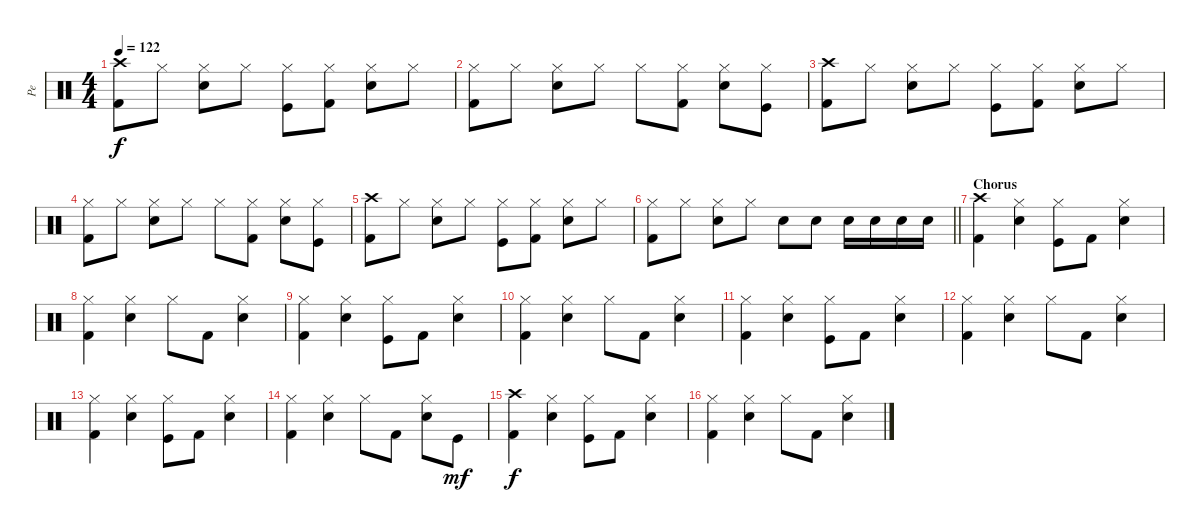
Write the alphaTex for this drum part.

\track ("Pe" "Pe") {instrument percussion}
\staff {score}
\articulation defaults
\ts (4 4)
\tempo 122
\clef neutral
\ks c
("Kick (hit) 2" "Crash high (hit)").8{dy f} "Hi-Hat (closed)".8 ("Electric Snare (hit)" "Hi-Hat (closed)").8 "Hi-Hat (closed)".8 ("Kick (hit)" "Hi-Hat (closed)").8 ("Kick (hit) 2" "Hi-Hat (closed)").8 ("Electric Snare (hit)" "Hi-Hat (closed)").8 "Hi-Hat (closed)".8 |
("Kick (hit) 2" "Hi-Hat (closed)").8 "Hi-Hat (closed)".8 ("Electric Snare (hit)" "Hi-Hat (closed)").8 "Hi-Hat (closed)".8 "Hi-Hat (closed)".8 ("Kick (hit) 2" "Hi-Hat (closed)").8 ("Electric Snare (hit)" "Hi-Hat (closed)").8 ("Kick (hit)" "Hi-Hat (closed)").8 |
("Kick (hit) 2" "Crash high (hit)").8 "Hi-Hat (closed)".8 ("Electric Snare (hit)" "Hi-Hat (closed)").8 "Hi-Hat (closed)".8 ("Kick (hit)" "Hi-Hat (closed)").8 ("Kick (hit) 2" "Hi-Hat (closed)").8 ("Electric Snare (hit)" "Hi-Hat (closed)").8 "Hi-Hat (closed)".8 |
("Kick (hit) 2" "Hi-Hat (closed)").8 "Hi-Hat (closed)".8 ("Electric Snare (hit)" "Hi-Hat (closed)").8 "Hi-Hat (closed)".8 "Hi-Hat (closed)".8 ("Kick (hit) 2" "Hi-Hat (closed)").8 ("Electric Snare (hit)" "Hi-Hat (closed)").8 ("Kick (hit)" "Hi-Hat (closed)").8 |
("Kick (hit) 2" "Crash high (hit)").8 "Hi-Hat (closed)".8 ("Electric Snare (hit)" "Hi-Hat (closed)").8 "Hi-Hat (closed)".8 ("Kick (hit)" "Hi-Hat (closed)").8 ("Kick (hit) 2" "Hi-Hat (closed)").8 ("Electric Snare (hit)" "Hi-Hat (closed)").8 "Hi-Hat (closed)".8 |
\barLineRight lightlight
("Kick (hit) 2" "Hi-Hat (closed)").8 "Hi-Hat (closed)".8 ("Electric Snare (hit)" "Hi-Hat (closed)").8 "Hi-Hat (closed)".8 "Electric Snare (hit)".8 "Electric Snare (hit)".8 "Electric Snare (hit)".16 "Electric Snare (hit)".16 "Electric Snare (hit)".16 "Electric Snare (hit)".16 |
\section ("" "Chorus")
("Kick (hit) 2" "Crash high (hit)").4 ("Electric Snare (hit)" "Hi-Hat (closed)").4 ("Kick (hit)" "Hi-Hat (closed)").8 "Kick (hit) 2".8 ("Electric Snare (hit)" "Hi-Hat (closed)").4 |
("Kick (hit) 2" "Hi-Hat (closed)").4 ("Electric Snare (hit)" "Hi-Hat (closed)").4 "Hi-Hat (closed)".8 "Kick (hit) 2".8 ("Electric Snare (hit)" "Hi-Hat (closed)").4 |
("Kick (hit) 2" "Hi-Hat (closed)").4 ("Electric Snare (hit)" "Hi-Hat (closed)").4 ("Kick (hit)" "Hi-Hat (closed)").8 "Kick (hit) 2".8 ("Electric Snare (hit)" "Hi-Hat (closed)").4 |
("Kick (hit) 2" "Hi-Hat (closed)").4 ("Electric Snare (hit)" "Hi-Hat (closed)").4 "Hi-Hat (closed)".8 "Kick (hit) 2".8 ("Electric Snare (hit)" "Hi-Hat (closed)").4 |
("Kick (hit) 2" "Hi-Hat (closed)").4 ("Electric Snare (hit)" "Hi-Hat (closed)").4 ("Kick (hit)" "Hi-Hat (closed)").8 "Kick (hit) 2".8 ("Electric Snare (hit)" "Hi-Hat (closed)").4 |
("Kick (hit) 2" "Hi-Hat (closed)").4 ("Electric Snare (hit)" "Hi-Hat (closed)").4 "Hi-Hat (closed)".8 "Kick (hit) 2".8 ("Electric Snare (hit)" "Hi-Hat (closed)").4 |
("Kick (hit) 2" "Hi-Hat (closed)").4 ("Electric Snare (hit)" "Hi-Hat (closed)").4 ("Kick (hit)" "Hi-Hat (closed)").8 "Kick (hit) 2".8 ("Electric Snare (hit)" "Hi-Hat (closed)").4 |
("Kick (hit) 2" "Hi-Hat (closed)").4 ("Electric Snare (hit)" "Hi-Hat (closed)").4 "Hi-Hat (closed)".8 "Kick (hit) 2".8 ("Electric Snare (hit)" "Hi-Hat (closed)").8 "Kick (hit)".8{dy mf} |
("Kick (hit) 2" "Crash high (hit)").4{dy f} ("Electric Snare (hit)" "Hi-Hat (closed)").4 ("Kick (hit)" "Hi-Hat (closed)").8 "Kick (hit) 2".8 ("Electric Snare (hit)" "Hi-Hat (closed)").4 |
("Kick (hit) 2" "Hi-Hat (closed)").4 ("Electric Snare (hit)" "Hi-Hat (closed)").4 "Hi-Hat (closed)".8 "Kick (hit) 2".8 ("Electric Snare (hit)" "Hi-Hat (closed)").4
